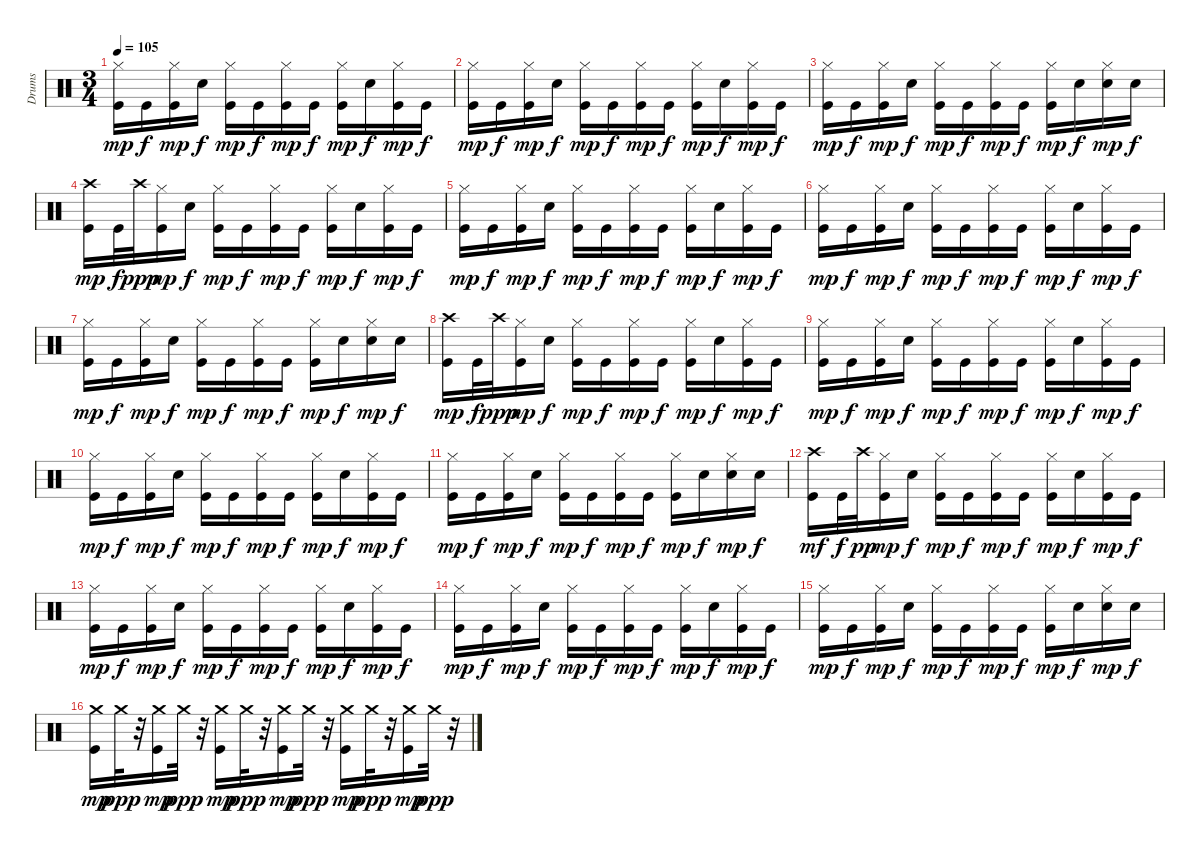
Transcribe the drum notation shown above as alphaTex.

\track ("Drums" "Drums") {instrument percussion}
\staff {score}
\articulation defaults
\ts (3 4)
\tempo 105
\clef neutral
\ks c
("Hi-Hat (closed)" "Kick (hit)").16{dy mp} "Kick (hit)".16{dy f} ("Hi-Hat (closed)" "Kick (hit)").16{dy mp} "Snare (hit) 2".16{dy f} ("Hi-Hat (closed)" "Kick (hit)").16{dy mp} "Kick (hit)".16{dy f} ("Hi-Hat (closed)" "Kick (hit)").16{dy mp} "Kick (hit)".16{dy f} ("Hi-Hat (closed)" "Kick (hit)").16{dy mp} "Snare (hit) 2".16{dy f} ("Hi-Hat (closed)" "Kick (hit)").16{dy mp} "Kick (hit)".16{dy f} |
("Hi-Hat (closed)" "Kick (hit)").16{dy mp} "Kick (hit)".16{dy f} ("Hi-Hat (closed)" "Kick (hit)").16{dy mp} "Snare (hit) 2".16{dy f} ("Hi-Hat (closed)" "Kick (hit)").16{dy mp} "Kick (hit)".16{dy f} ("Hi-Hat (closed)" "Kick (hit)").16{dy mp} "Kick (hit)".16{dy f} ("Hi-Hat (closed)" "Kick (hit)").16{dy mp} "Snare (hit) 2".16{dy f} ("Hi-Hat (closed)" "Kick (hit)").16{dy mp} "Kick (hit)".16{dy f} |
("Hi-Hat (closed)" "Kick (hit)").16{dy mp} "Kick (hit)".16{dy f} ("Hi-Hat (closed)" "Kick (hit)").16{dy mp} "Snare (hit) 2".16{dy f} ("Hi-Hat (closed)" "Kick (hit)").16{dy mp} "Kick (hit)".16{dy f} ("Hi-Hat (closed)" "Kick (hit)").16{dy mp} "Kick (hit)".16{dy f} ("Hi-Hat (closed)" "Kick (hit)").16{dy mp} "Snare (hit) 2".16{dy f} ("Hi-Hat (closed)" "Snare (hit) 2").16{dy mp} "Snare (hit) 2".16{dy f} |
("Crash high (hit)" "Kick (hit)").16{dy mp} "Kick (hit)".32{dy f} "Crash high (hit)".32{dy ppp} ("Hi-Hat (closed)" "Kick (hit)").16{dy mp} "Snare (hit) 2".16{dy f} ("Hi-Hat (closed)" "Kick (hit)").16{dy mp} "Kick (hit)".16{dy f} ("Hi-Hat (closed)" "Kick (hit)").16{dy mp} "Kick (hit)".16{dy f} ("Hi-Hat (closed)" "Kick (hit)").16{dy mp} "Snare (hit) 2".16{dy f} ("Hi-Hat (closed)" "Kick (hit)").16{dy mp} "Kick (hit)".16{dy f} |
("Hi-Hat (closed)" "Kick (hit)").16{dy mp} "Kick (hit)".16{dy f} ("Hi-Hat (closed)" "Kick (hit)").16{dy mp} "Snare (hit) 2".16{dy f} ("Hi-Hat (closed)" "Kick (hit)").16{dy mp} "Kick (hit)".16{dy f} ("Hi-Hat (closed)" "Kick (hit)").16{dy mp} "Kick (hit)".16{dy f} ("Hi-Hat (closed)" "Kick (hit)").16{dy mp} "Snare (hit) 2".16{dy f} ("Hi-Hat (closed)" "Kick (hit)").16{dy mp} "Kick (hit)".16{dy f} |
("Hi-Hat (closed)" "Kick (hit)").16{dy mp} "Kick (hit)".16{dy f} ("Hi-Hat (closed)" "Kick (hit)").16{dy mp} "Snare (hit) 2".16{dy f} ("Hi-Hat (closed)" "Kick (hit)").16{dy mp} "Kick (hit)".16{dy f} ("Hi-Hat (closed)" "Kick (hit)").16{dy mp} "Kick (hit)".16{dy f} ("Hi-Hat (closed)" "Kick (hit)").16{dy mp} "Snare (hit) 2".16{dy f} ("Hi-Hat (closed)" "Kick (hit)").16{dy mp} "Kick (hit)".16{dy f} |
("Hi-Hat (closed)" "Kick (hit)").16{dy mp} "Kick (hit)".16{dy f} ("Hi-Hat (closed)" "Kick (hit)").16{dy mp} "Snare (hit) 2".16{dy f} ("Hi-Hat (closed)" "Kick (hit)").16{dy mp} "Kick (hit)".16{dy f} ("Hi-Hat (closed)" "Kick (hit)").16{dy mp} "Kick (hit)".16{dy f} ("Hi-Hat (closed)" "Kick (hit)").16{dy mp} "Snare (hit) 2".16{dy f} ("Hi-Hat (closed)" "Snare (hit) 2").16{dy mp} "Snare (hit) 2".16{dy f} |
("Crash high (hit)" "Kick (hit)").16{dy mp} "Kick (hit)".32{dy f} "Crash high (hit)".32{dy ppp} ("Hi-Hat (closed)" "Kick (hit)").16{dy mp} "Snare (hit) 2".16{dy f} ("Hi-Hat (closed)" "Kick (hit)").16{dy mp} "Kick (hit)".16{dy f} ("Hi-Hat (closed)" "Kick (hit)").16{dy mp} "Kick (hit)".16{dy f} ("Hi-Hat (closed)" "Kick (hit)").16{dy mp} "Snare (hit) 2".16{dy f} ("Hi-Hat (closed)" "Kick (hit)").16{dy mp} "Kick (hit)".16{dy f} |
("Hi-Hat (closed)" "Kick (hit)").16{dy mp} "Kick (hit)".16{dy f} ("Hi-Hat (closed)" "Kick (hit)").16{dy mp} "Snare (hit) 2".16{dy f} ("Hi-Hat (closed)" "Kick (hit)").16{dy mp} "Kick (hit)".16{dy f} ("Hi-Hat (closed)" "Kick (hit)").16{dy mp} "Kick (hit)".16{dy f} ("Hi-Hat (closed)" "Kick (hit)").16{dy mp} "Snare (hit) 2".16{dy f} ("Hi-Hat (closed)" "Kick (hit)").16{dy mp} "Kick (hit)".16{dy f} |
("Hi-Hat (closed)" "Kick (hit)").16{dy mp} "Kick (hit)".16{dy f} ("Hi-Hat (closed)" "Kick (hit)").16{dy mp} "Snare (hit) 2".16{dy f} ("Hi-Hat (closed)" "Kick (hit)").16{dy mp} "Kick (hit)".16{dy f} ("Hi-Hat (closed)" "Kick (hit)").16{dy mp} "Kick (hit)".16{dy f} ("Hi-Hat (closed)" "Kick (hit)").16{dy mp} "Snare (hit) 2".16{dy f} ("Hi-Hat (closed)" "Kick (hit)").16{dy mp} "Kick (hit)".16{dy f} |
("Hi-Hat (closed)" "Kick (hit)").16{dy mp} "Kick (hit)".16{dy f} ("Hi-Hat (closed)" "Kick (hit)").16{dy mp} "Snare (hit) 2".16{dy f} ("Hi-Hat (closed)" "Kick (hit)").16{dy mp} "Kick (hit)".16{dy f} ("Hi-Hat (closed)" "Kick (hit)").16{dy mp} "Kick (hit)".16{dy f} ("Hi-Hat (closed)" "Kick (hit)").16{dy mp} "Snare (hit) 2".16{dy f} ("Hi-Hat (closed)" "Snare (hit) 2").16{dy mp} "Snare (hit) 2".16{dy f} |
("Crash high (hit)" "Kick (hit)").16{dy mf} "Kick (hit)".32{dy f} "Crash high (hit)".32{dy pp} ("Hi-Hat (closed)" "Kick (hit)").16{dy mp} "Snare (hit) 2".16{dy f} ("Hi-Hat (closed)" "Kick (hit)").16{dy mp} "Kick (hit)".16{dy f} ("Hi-Hat (closed)" "Kick (hit)").16{dy mp} "Kick (hit)".16{dy f} ("Hi-Hat (closed)" "Kick (hit)").16{dy mp} "Snare (hit) 2".16{dy f} ("Hi-Hat (closed)" "Kick (hit)").16{dy mp} "Kick (hit)".16{dy f} |
("Hi-Hat (closed)" "Kick (hit)").16{dy mp} "Kick (hit)".16{dy f} ("Hi-Hat (closed)" "Kick (hit)").16{dy mp} "Snare (hit) 2".16{dy f} ("Hi-Hat (closed)" "Kick (hit)").16{dy mp} "Kick (hit)".16{dy f} ("Hi-Hat (closed)" "Kick (hit)").16{dy mp} "Kick (hit)".16{dy f} ("Hi-Hat (closed)" "Kick (hit)").16{dy mp} "Snare (hit) 2".16{dy f} ("Hi-Hat (closed)" "Kick (hit)").16{dy mp} "Kick (hit)".16{dy f} |
("Hi-Hat (closed)" "Kick (hit)").16{dy mp} "Kick (hit)".16{dy f} ("Hi-Hat (closed)" "Kick (hit)").16{dy mp} "Snare (hit) 2".16{dy f} ("Hi-Hat (closed)" "Kick (hit)").16{dy mp} "Kick (hit)".16{dy f} ("Hi-Hat (closed)" "Kick (hit)").16{dy mp} "Kick (hit)".16{dy f} ("Hi-Hat (closed)" "Kick (hit)").16{dy mp} "Snare (hit) 2".16{dy f} ("Hi-Hat (closed)" "Kick (hit)").16{dy mp} "Kick (hit)".16{dy f} |
("Hi-Hat (closed)" "Kick (hit)").16{dy mp} "Kick (hit)".16{dy f} ("Hi-Hat (closed)" "Kick (hit)").16{dy mp} "Snare (hit) 2".16{dy f} ("Hi-Hat (closed)" "Kick (hit)").16{dy mp} "Kick (hit)".16{dy f} ("Hi-Hat (closed)" "Kick (hit)").16{dy mp} "Kick (hit)".16{dy f} ("Hi-Hat (closed)" "Kick (hit)").16{dy mp} "Snare (hit) 2".16{dy f} ("Hi-Hat (closed)" "Snare (hit) 2").16{dy mp} "Snare (hit) 2".16{dy f} |
("Crash medium (hit)" "Kick (hit)").16{dy mp} "Crash medium (hit)".32{dy ppp} r.32 ("Crash medium (hit)" "Kick (hit)").16{dy mp} "Crash medium (hit)".32{dy ppp} r.32 ("Crash medium (hit)" "Kick (hit)").16{dy mp} "Crash medium (hit)".32{dy ppp} r.32 ("Crash medium (hit)" "Kick (hit)").16{dy mp} "Crash medium (hit)".32{dy ppp} r.32 ("Crash medium (hit)" "Kick (hit)").16{dy mp} "Crash medium (hit)".32{dy ppp} r.32 ("Crash medium (hit)" "Kick (hit)").16{dy mp} "Crash medium (hit)".32{dy ppp} r.32
